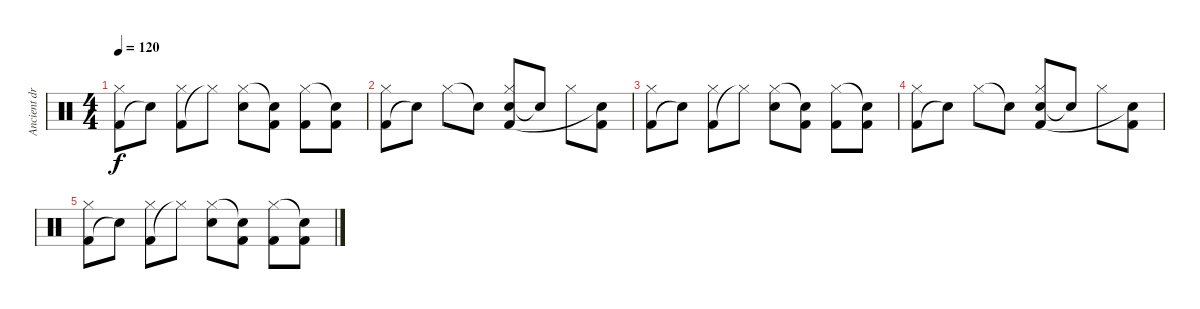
\track ("Ancient drum type things :S" "Ancient dr") {instrument percussion}
\staff {score}
\articulation defaults
\ts (4 4)
\tempo 120
\clef neutral
\ks c
("Kick (hit) 2" "Hi-Hat (closed)").8{dy f} "Snare (hit)"{t}.8 ("Kick (hit) 2" "Hi-Hat (closed)").8 "Hi-Hat (closed)"{t}.8 ("Snare (hit) 2" "Hi-Hat (closed)").8 ("Kick (hit) 2" "Snare (hit)"{t}).8 ("Kick (hit) 2" "Hi-Hat (closed)").8 ("Kick (hit) 2" "Snare (hit)"{t}).8 |
("Kick (hit) 2" "Hi-Hat (closed)").8 "Snare (hit)"{t}.8 "Hi-Hat (closed)".8 "Snare (hit)"{t}.8 ("Snare (hit) 2" "Kick (hit) 2" "Hi-Hat (closed)").8 "Snare (hit)"{t}.8 "Hi-Hat (closed)".8 ("Kick (hit) 2" "Snare (hit)"{t}).8 |
("Kick (hit) 2" "Hi-Hat (closed)").8 "Snare (hit)"{t}.8 ("Kick (hit) 2" "Hi-Hat (closed)").8 "Hi-Hat (closed)"{t}.8 ("Snare (hit) 2" "Hi-Hat (closed)").8 ("Kick (hit) 2" "Snare (hit)"{t}).8 ("Kick (hit) 2" "Hi-Hat (closed)").8 ("Kick (hit) 2" "Snare (hit)"{t}).8 |
("Kick (hit) 2" "Hi-Hat (closed)").8 "Snare (hit)"{t}.8 "Hi-Hat (closed)".8 "Snare (hit)"{t}.8 ("Snare (hit) 2" "Kick (hit) 2" "Hi-Hat (closed)").8 "Snare (hit)"{t}.8 "Hi-Hat (closed)".8 ("Kick (hit) 2" "Snare (hit)"{t}).8 |
("Kick (hit) 2" "Hi-Hat (closed)").8 "Snare (hit)"{t}.8 ("Kick (hit) 2" "Hi-Hat (closed)").8 "Hi-Hat (closed)"{t}.8 ("Snare (hit) 2" "Hi-Hat (closed)").8 ("Kick (hit) 2" "Snare (hit)"{t}).8 ("Kick (hit) 2" "Hi-Hat (closed)").8 ("Kick (hit) 2" "Snare (hit)"{t}).8
